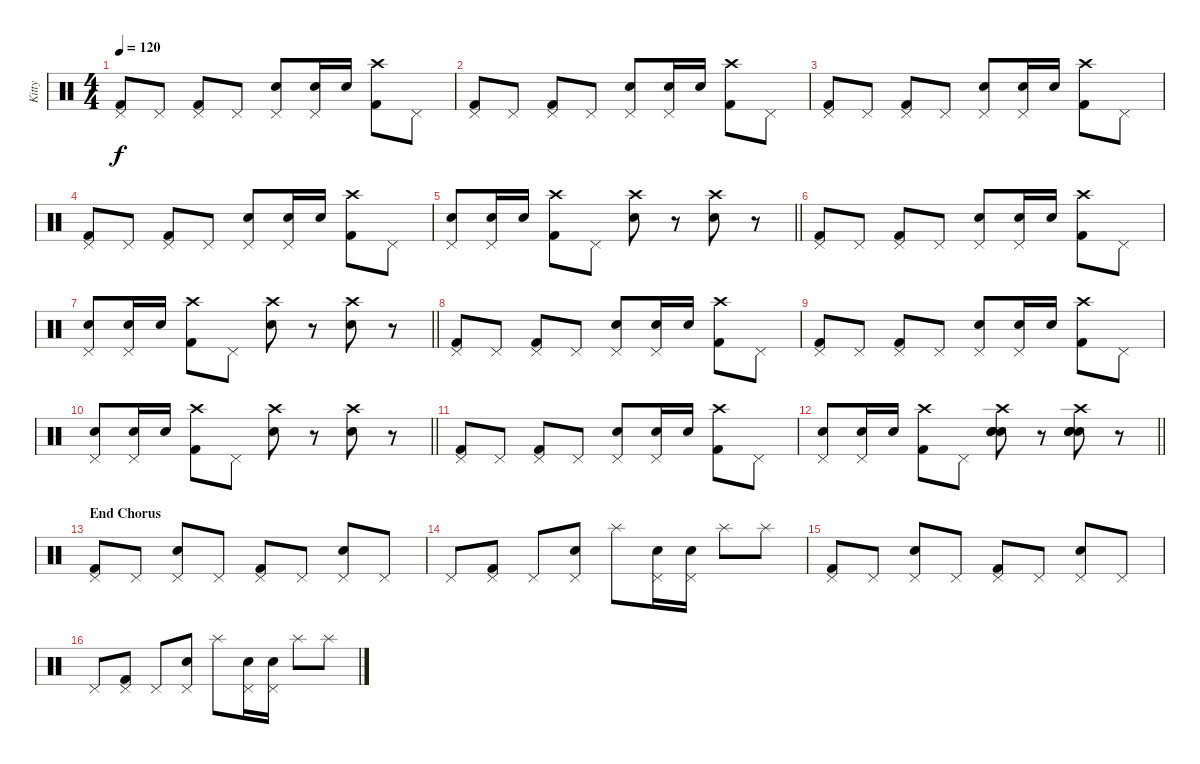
\track ("Kitty" "Kitty") {instrument percussion}
\staff {score}
\articulation defaults
\ts (4 4)
\tempo 120
\clef neutral
\ks c
("Pedal Hi-Hat (hit)" "Kick (hit) 2").8{dy f} "Pedal Hi-Hat (hit)".8 ("Pedal Hi-Hat (hit)" "Kick (hit) 2").8 "Pedal Hi-Hat (hit)".8 ("Pedal Hi-Hat (hit)" "Electric Snare (hit)").8 ("Pedal Hi-Hat (hit)" "Electric Snare (hit)").16 "Electric Snare (hit)".16 ("Crash high (hit)" "Kick (hit) 2").8 "Pedal Hi-Hat (hit)".8 |
("Pedal Hi-Hat (hit)" "Kick (hit) 2").8 "Pedal Hi-Hat (hit)".8 ("Pedal Hi-Hat (hit)" "Kick (hit) 2").8 "Pedal Hi-Hat (hit)".8 ("Pedal Hi-Hat (hit)" "Electric Snare (hit)").8 ("Pedal Hi-Hat (hit)" "Electric Snare (hit)").16 "Electric Snare (hit)".16 ("Crash high (hit)" "Kick (hit) 2").8 "Pedal Hi-Hat (hit)".8 |
("Pedal Hi-Hat (hit)" "Kick (hit) 2").8 "Pedal Hi-Hat (hit)".8 ("Pedal Hi-Hat (hit)" "Kick (hit) 2").8 "Pedal Hi-Hat (hit)".8 ("Pedal Hi-Hat (hit)" "Electric Snare (hit)").8 ("Pedal Hi-Hat (hit)" "Electric Snare (hit)").16 "Electric Snare (hit)".16 ("Crash high (hit)" "Kick (hit) 2").8 "Pedal Hi-Hat (hit)".8 |
("Pedal Hi-Hat (hit)" "Kick (hit) 2").8 "Pedal Hi-Hat (hit)".8 ("Pedal Hi-Hat (hit)" "Kick (hit) 2").8 "Pedal Hi-Hat (hit)".8 ("Pedal Hi-Hat (hit)" "Electric Snare (hit)").8 ("Pedal Hi-Hat (hit)" "Electric Snare (hit)").16 "Electric Snare (hit)".16 ("Crash high (hit)" "Kick (hit) 2").8 "Pedal Hi-Hat (hit)".8 |
\barLineRight lightlight
("Pedal Hi-Hat (hit)" "Electric Snare (hit)").8 ("Pedal Hi-Hat (hit)" "Electric Snare (hit)").16 "Electric Snare (hit)".16 ("Crash high (hit)" "Kick (hit) 2").8 "Pedal Hi-Hat (hit)".8 ("Crash high (hit)" "Electric Snare (hit)").8 r.8 ("Crash high (hit)" "Electric Snare (hit)").8 r.8 |
("Pedal Hi-Hat (hit)" "Kick (hit) 2").8 "Pedal Hi-Hat (hit)".8 ("Pedal Hi-Hat (hit)" "Kick (hit) 2").8 "Pedal Hi-Hat (hit)".8 ("Pedal Hi-Hat (hit)" "Electric Snare (hit)").8 ("Pedal Hi-Hat (hit)" "Electric Snare (hit)").16 "Electric Snare (hit)".16 ("Crash high (hit)" "Kick (hit) 2").8 "Pedal Hi-Hat (hit)".8 |
\barLineRight lightlight
("Pedal Hi-Hat (hit)" "Electric Snare (hit)").8 ("Pedal Hi-Hat (hit)" "Electric Snare (hit)").16 "Electric Snare (hit)".16 ("Crash high (hit)" "Kick (hit) 2").8 "Pedal Hi-Hat (hit)".8 ("Crash high (hit)" "Electric Snare (hit)").8 r.8 ("Crash high (hit)" "Electric Snare (hit)").8 r.8 |
("Pedal Hi-Hat (hit)" "Kick (hit) 2").8 "Pedal Hi-Hat (hit)".8 ("Pedal Hi-Hat (hit)" "Kick (hit) 2").8 "Pedal Hi-Hat (hit)".8 ("Pedal Hi-Hat (hit)" "Electric Snare (hit)").8 ("Pedal Hi-Hat (hit)" "Electric Snare (hit)").16 "Electric Snare (hit)".16 ("Crash high (hit)" "Kick (hit) 2").8 "Pedal Hi-Hat (hit)".8 |
("Pedal Hi-Hat (hit)" "Kick (hit) 2").8 "Pedal Hi-Hat (hit)".8 ("Pedal Hi-Hat (hit)" "Kick (hit) 2").8 "Pedal Hi-Hat (hit)".8 ("Pedal Hi-Hat (hit)" "Electric Snare (hit)").8 ("Pedal Hi-Hat (hit)" "Electric Snare (hit)").16 "Electric Snare (hit)".16 ("Crash high (hit)" "Kick (hit) 2").8 "Pedal Hi-Hat (hit)".8 |
\barLineRight lightlight
("Pedal Hi-Hat (hit)" "Electric Snare (hit)").8 ("Pedal Hi-Hat (hit)" "Electric Snare (hit)").16 "Electric Snare (hit)".16 ("Crash high (hit)" "Kick (hit) 2").8 "Pedal Hi-Hat (hit)".8 ("Crash high (hit)" "Electric Snare (hit)").8 r.8 ("Crash high (hit)" "Electric Snare (hit)").8 r.8 |
("Pedal Hi-Hat (hit)" "Kick (hit) 2").8 "Pedal Hi-Hat (hit)".8 ("Pedal Hi-Hat (hit)" "Kick (hit) 2").8 "Pedal Hi-Hat (hit)".8 ("Pedal Hi-Hat (hit)" "Electric Snare (hit)").8 ("Pedal Hi-Hat (hit)" "Electric Snare (hit)").16 "Electric Snare (hit)".16 ("Crash high (hit)" "Kick (hit) 2").8 "Pedal Hi-Hat (hit)".8 |
\barLineRight lightlight
("Pedal Hi-Hat (hit)" "Electric Snare (hit)").8 ("Pedal Hi-Hat (hit)" "Electric Snare (hit)").16 "Electric Snare (hit)".16 ("Crash high (hit)" "Kick (hit) 2").8 "Pedal Hi-Hat (hit)".8 ("Crash high (hit)" "Electric Snare (hit)" "Electric Snare (hit)" "Electric Snare (hit)").8 r.8 ("Crash high (hit)" "Electric Snare (hit)" "Electric Snare (hit)" "Electric Snare (hit)").8 r.8 |
\section ("" "End Chorus")
("Pedal Hi-Hat (hit)" "Kick (hit) 2").8 "Pedal Hi-Hat (hit)".8 ("Pedal Hi-Hat (hit)" "Electric Snare (hit)").8 "Pedal Hi-Hat (hit)".8 ("Pedal Hi-Hat (hit)" "Kick (hit) 2").8 "Pedal Hi-Hat (hit)".8 ("Pedal Hi-Hat (hit)" "Electric Snare (hit)").8 "Pedal Hi-Hat (hit)".8 |
"Pedal Hi-Hat (hit)".8 ("Pedal Hi-Hat (hit)" "Kick (hit) 2").8 "Pedal Hi-Hat (hit)".8 ("Pedal Hi-Hat (hit)" "Electric Snare (hit)").8 "Splash (hit)".8 ("Pedal Hi-Hat (hit)" "Electric Snare (hit)").16 ("Pedal Hi-Hat (hit)" "Electric Snare (hit)").16 "Splash (hit)".8 "Splash (hit)".8 |
("Pedal Hi-Hat (hit)" "Kick (hit) 2").8 "Pedal Hi-Hat (hit)".8 ("Pedal Hi-Hat (hit)" "Electric Snare (hit)").8 "Pedal Hi-Hat (hit)".8 ("Pedal Hi-Hat (hit)" "Kick (hit) 2").8 "Pedal Hi-Hat (hit)".8 ("Pedal Hi-Hat (hit)" "Electric Snare (hit)").8 "Pedal Hi-Hat (hit)".8 |
"Pedal Hi-Hat (hit)".8 ("Pedal Hi-Hat (hit)" "Kick (hit) 2").8 "Pedal Hi-Hat (hit)".8 ("Pedal Hi-Hat (hit)" "Electric Snare (hit)").8 "Splash (hit)".8 ("Pedal Hi-Hat (hit)" "Electric Snare (hit)").16 ("Pedal Hi-Hat (hit)" "Electric Snare (hit)").16 "Splash (hit)".8 "Splash (hit)".8
